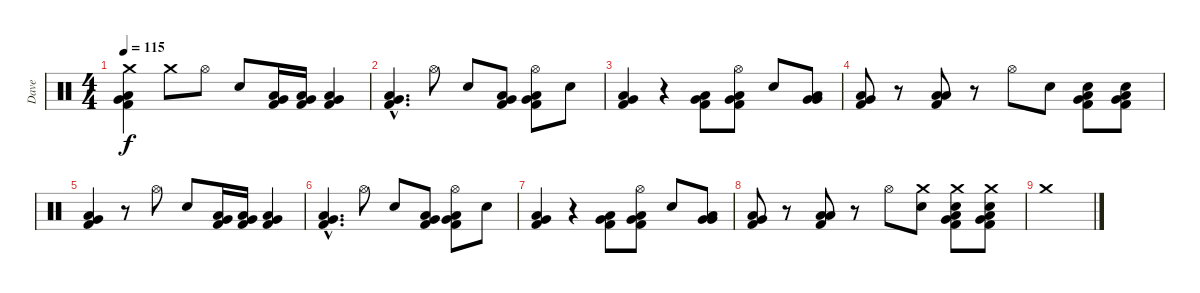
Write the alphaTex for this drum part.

\track ("Dave" "Dave") {instrument percussion}
\staff {score}
\articulation defaults
\ts (4 4)
\tempo 115
\clef neutral
\ks c
("Crash medium (hit)" "Low Floor Tom (hit)" "Very Low Tom (hit)" "Kick (hit) 2").4{dy f} "Crash medium (hit)".8 "Hi-Hat (open)".8 "Electric Snare (hit)".8 ("Very Low Tom (hit)" "Kick (hit) 2" "Low Floor Tom (hit)").16 ("Very Low Tom (hit)" "Kick (hit) 2" "Low Floor Tom (hit)").16 ("Very Low Tom (hit)" "Kick (hit) 2" "Low Floor Tom (hit)").4 |
("Very Low Tom (hit)"{hac} "Kick (hit) 2"{hac} "Low Floor Tom (hit)"{hac}).4{d} "Hi-Hat (open)".8 "Electric Snare (hit)".8 ("Low Floor Tom (hit)" "Very Low Tom (hit)" "Kick (hit) 2").8 ("Hi-Hat (open)" "Low Floor Tom (hit)" "Very Low Tom (hit)" "Kick (hit) 2").8 "Electric Snare (hit)".8 |
("Very Low Tom (hit)" "Kick (hit) 2" "Low Floor Tom (hit)").4 r.4 ("Very Low Tom (hit)" "Low Floor Tom (hit)" "Kick (hit) 2").8 ("Hi-Hat (open)" "Very Low Tom (hit)" "Kick (hit) 2" "Low Floor Tom (hit)").8 "Electric Snare (hit)".8 ("Very Low Tom (hit)" "Very Low Tom (hit)" "Low Floor Tom (hit)").8 |
("Low Floor Tom (hit)" "Very Low Tom (hit)" "Kick (hit) 2").8 r.8 ("Low Floor Tom (hit)" "Low Floor Tom (hit)" "Kick (hit) 2").8 r.8 "Hi-Hat (open)".8 "Electric Snare (hit)".8 ("Electric Snare (hit)" "Very Low Tom (hit)" "Low Floor Tom (hit)" "Kick (hit) 2").8 ("Electric Snare (hit)" "Very Low Tom (hit)" "Low Floor Tom (hit)" "Kick (hit) 2").8 |
("Low Floor Tom (hit)" "Very Low Tom (hit)" "Kick (hit) 2").4 r.8 "Hi-Hat (open)".8 "Electric Snare (hit)".8 ("Very Low Tom (hit)" "Kick (hit) 2" "Low Floor Tom (hit)").16 ("Very Low Tom (hit)" "Kick (hit) 2" "Low Floor Tom (hit)").16 ("Very Low Tom (hit)" "Kick (hit) 2" "Low Floor Tom (hit)").4 |
("Very Low Tom (hit)"{hac} "Kick (hit) 2"{hac} "Low Floor Tom (hit)"{hac}).4{d} "Hi-Hat (open)".8 "Electric Snare (hit)".8 ("Low Floor Tom (hit)" "Very Low Tom (hit)" "Kick (hit) 2").8 ("Hi-Hat (open)" "Low Floor Tom (hit)" "Very Low Tom (hit)" "Kick (hit) 2").8 "Electric Snare (hit)".8 |
("Very Low Tom (hit)" "Kick (hit) 2" "Low Floor Tom (hit)").4 r.4 ("Very Low Tom (hit)" "Low Floor Tom (hit)" "Kick (hit) 2").8 ("Hi-Hat (open)" "Very Low Tom (hit)" "Kick (hit) 2" "Low Floor Tom (hit)").8 "Electric Snare (hit)".8 ("Very Low Tom (hit)" "Very Low Tom (hit)" "Low Floor Tom (hit)").8 |
("Low Floor Tom (hit)" "Very Low Tom (hit)" "Kick (hit) 2").8 r.8 ("Low Floor Tom (hit)" "Low Floor Tom (hit)" "Kick (hit) 2").8 r.8 "Hi-Hat (open)".8 ("Crash medium (hit)" "Electric Snare (hit)").8 ("Crash medium (hit)" "Electric Snare (hit)" "Very Low Tom (hit)" "Low Floor Tom (hit)" "Kick (hit) 2").8 ("Crash medium (hit)" "Electric Snare (hit)" "Very Low Tom (hit)" "Low Floor Tom (hit)" "Kick (hit) 2").8 |
"Crash medium (hit)".1
